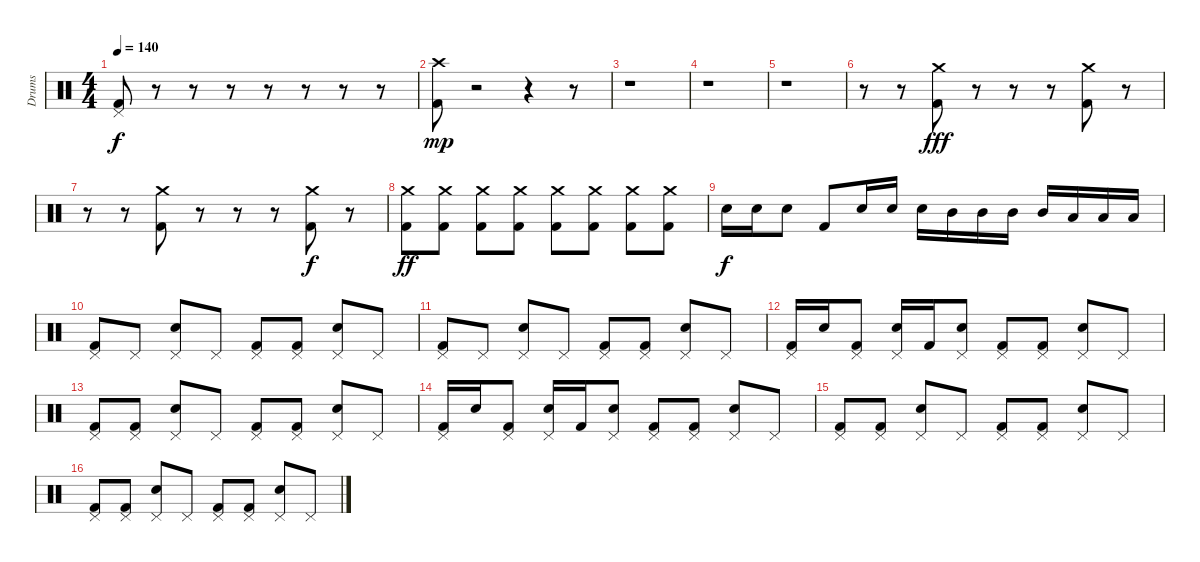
\track ("Drums" "Drums") {instrument percussion}
\staff {score}
\articulation defaults
\ts (4 4)
\tempo 140
\clef neutral
\ks c
("Pedal Hi-Hat (hit)" "Kick (hit) 2").8{dy f} r.8 r.8 r.8 r.8 r.8 r.8 r.8 |
("Crash high (hit)" "Kick (hit) 2").8{dy mp} r.2 r.4 r.8 |
r.1 |
r.1 |
r.1 |
r.8 r.8 ("Crash medium (hit)" "Kick (hit) 2").8{dy fff} r.8 r.8 r.8 ("Crash medium (hit)" "Kick (hit) 2").8 r.8 |
r.8 r.8 ("Crash medium (hit)" "Kick (hit) 2").8 r.8 r.8 r.8 ("Crash medium (hit)" "Kick (hit) 2").8{dy f} r.8 |
("Crash medium (hit)" "Kick (hit) 2").8{dy ff} ("Crash medium (hit)" "Kick (hit) 2").8 ("Crash medium (hit)" "Kick (hit) 2").8 ("Crash medium (hit)" "Kick (hit) 2").8 ("Crash medium (hit)" "Kick (hit) 2").8 ("Crash medium (hit)" "Kick (hit) 2").8 ("Crash medium (hit)" "Kick (hit) 2").8 ("Crash medium (hit)" "Kick (hit) 2").8 |
"Electric Snare (hit)".16{dy f} "Electric Snare (hit)".16 "Electric Snare (hit)".8 "Kick (hit) 2".8 "Electric Snare (hit)".16 "Electric Snare (hit)".16 "Electric Snare (hit)".16 "Mid Tom (hit)".16 "Mid Tom (hit)".16 "Mid Tom (hit)".16 "Mid Tom (hit)".16 "Low Tom (hit)".16 "Low Tom (hit)".16 "Low Tom (hit)".16 |
("Pedal Hi-Hat (hit)" "Kick (hit) 2").8 "Pedal Hi-Hat (hit)".8 ("Pedal Hi-Hat (hit)" "Electric Snare (hit)").8 "Pedal Hi-Hat (hit)".8 ("Pedal Hi-Hat (hit)" "Kick (hit) 2").8 ("Pedal Hi-Hat (hit)" "Kick (hit) 2").8 ("Pedal Hi-Hat (hit)" "Electric Snare (hit)").8 "Pedal Hi-Hat (hit)".8 |
("Pedal Hi-Hat (hit)" "Kick (hit) 2").8 "Pedal Hi-Hat (hit)".8 ("Pedal Hi-Hat (hit)" "Electric Snare (hit)").8 "Pedal Hi-Hat (hit)".8 ("Pedal Hi-Hat (hit)" "Kick (hit) 2").8 ("Pedal Hi-Hat (hit)" "Kick (hit) 2").8 ("Pedal Hi-Hat (hit)" "Electric Snare (hit)").8 "Pedal Hi-Hat (hit)".8 |
("Pedal Hi-Hat (hit)" "Kick (hit) 2").16 "Electric Snare (hit)".16 ("Pedal Hi-Hat (hit)" "Kick (hit) 2").8 ("Pedal Hi-Hat (hit)" "Electric Snare (hit)").16 "Kick (hit) 2".16 ("Pedal Hi-Hat (hit)" "Electric Snare (hit)").8 ("Pedal Hi-Hat (hit)" "Kick (hit) 2").8 ("Pedal Hi-Hat (hit)" "Kick (hit) 2").8 ("Pedal Hi-Hat (hit)" "Electric Snare (hit)").8 "Pedal Hi-Hat (hit)".8 |
("Pedal Hi-Hat (hit)" "Kick (hit) 2").8 ("Pedal Hi-Hat (hit)" "Kick (hit) 2").8 ("Pedal Hi-Hat (hit)" "Electric Snare (hit)").8 "Pedal Hi-Hat (hit)".8 ("Pedal Hi-Hat (hit)" "Kick (hit) 2").8 ("Pedal Hi-Hat (hit)" "Kick (hit) 2").8 ("Pedal Hi-Hat (hit)" "Electric Snare (hit)").8 "Pedal Hi-Hat (hit)".8 |
("Pedal Hi-Hat (hit)" "Kick (hit) 2").16 "Electric Snare (hit)".16 ("Pedal Hi-Hat (hit)" "Kick (hit) 2").8 ("Pedal Hi-Hat (hit)" "Electric Snare (hit)").16 "Kick (hit) 2".16 ("Pedal Hi-Hat (hit)" "Electric Snare (hit)").8 ("Pedal Hi-Hat (hit)" "Kick (hit) 2").8 ("Pedal Hi-Hat (hit)" "Kick (hit) 2").8 ("Pedal Hi-Hat (hit)" "Electric Snare (hit)").8 "Pedal Hi-Hat (hit)".8 |
("Pedal Hi-Hat (hit)" "Kick (hit) 2").8 ("Pedal Hi-Hat (hit)" "Kick (hit) 2").8 ("Pedal Hi-Hat (hit)" "Electric Snare (hit)").8 "Pedal Hi-Hat (hit)".8 ("Pedal Hi-Hat (hit)" "Kick (hit) 2").8 ("Pedal Hi-Hat (hit)" "Kick (hit) 2").8 ("Pedal Hi-Hat (hit)" "Electric Snare (hit)").8 "Pedal Hi-Hat (hit)".8 |
("Pedal Hi-Hat (hit)" "Kick (hit) 2").8 ("Pedal Hi-Hat (hit)" "Kick (hit) 2").8 ("Pedal Hi-Hat (hit)" "Electric Snare (hit)").8 "Pedal Hi-Hat (hit)".8 ("Pedal Hi-Hat (hit)" "Kick (hit) 2").8 ("Pedal Hi-Hat (hit)" "Kick (hit) 2").8 ("Pedal Hi-Hat (hit)" "Electric Snare (hit)").8 "Pedal Hi-Hat (hit)".8
